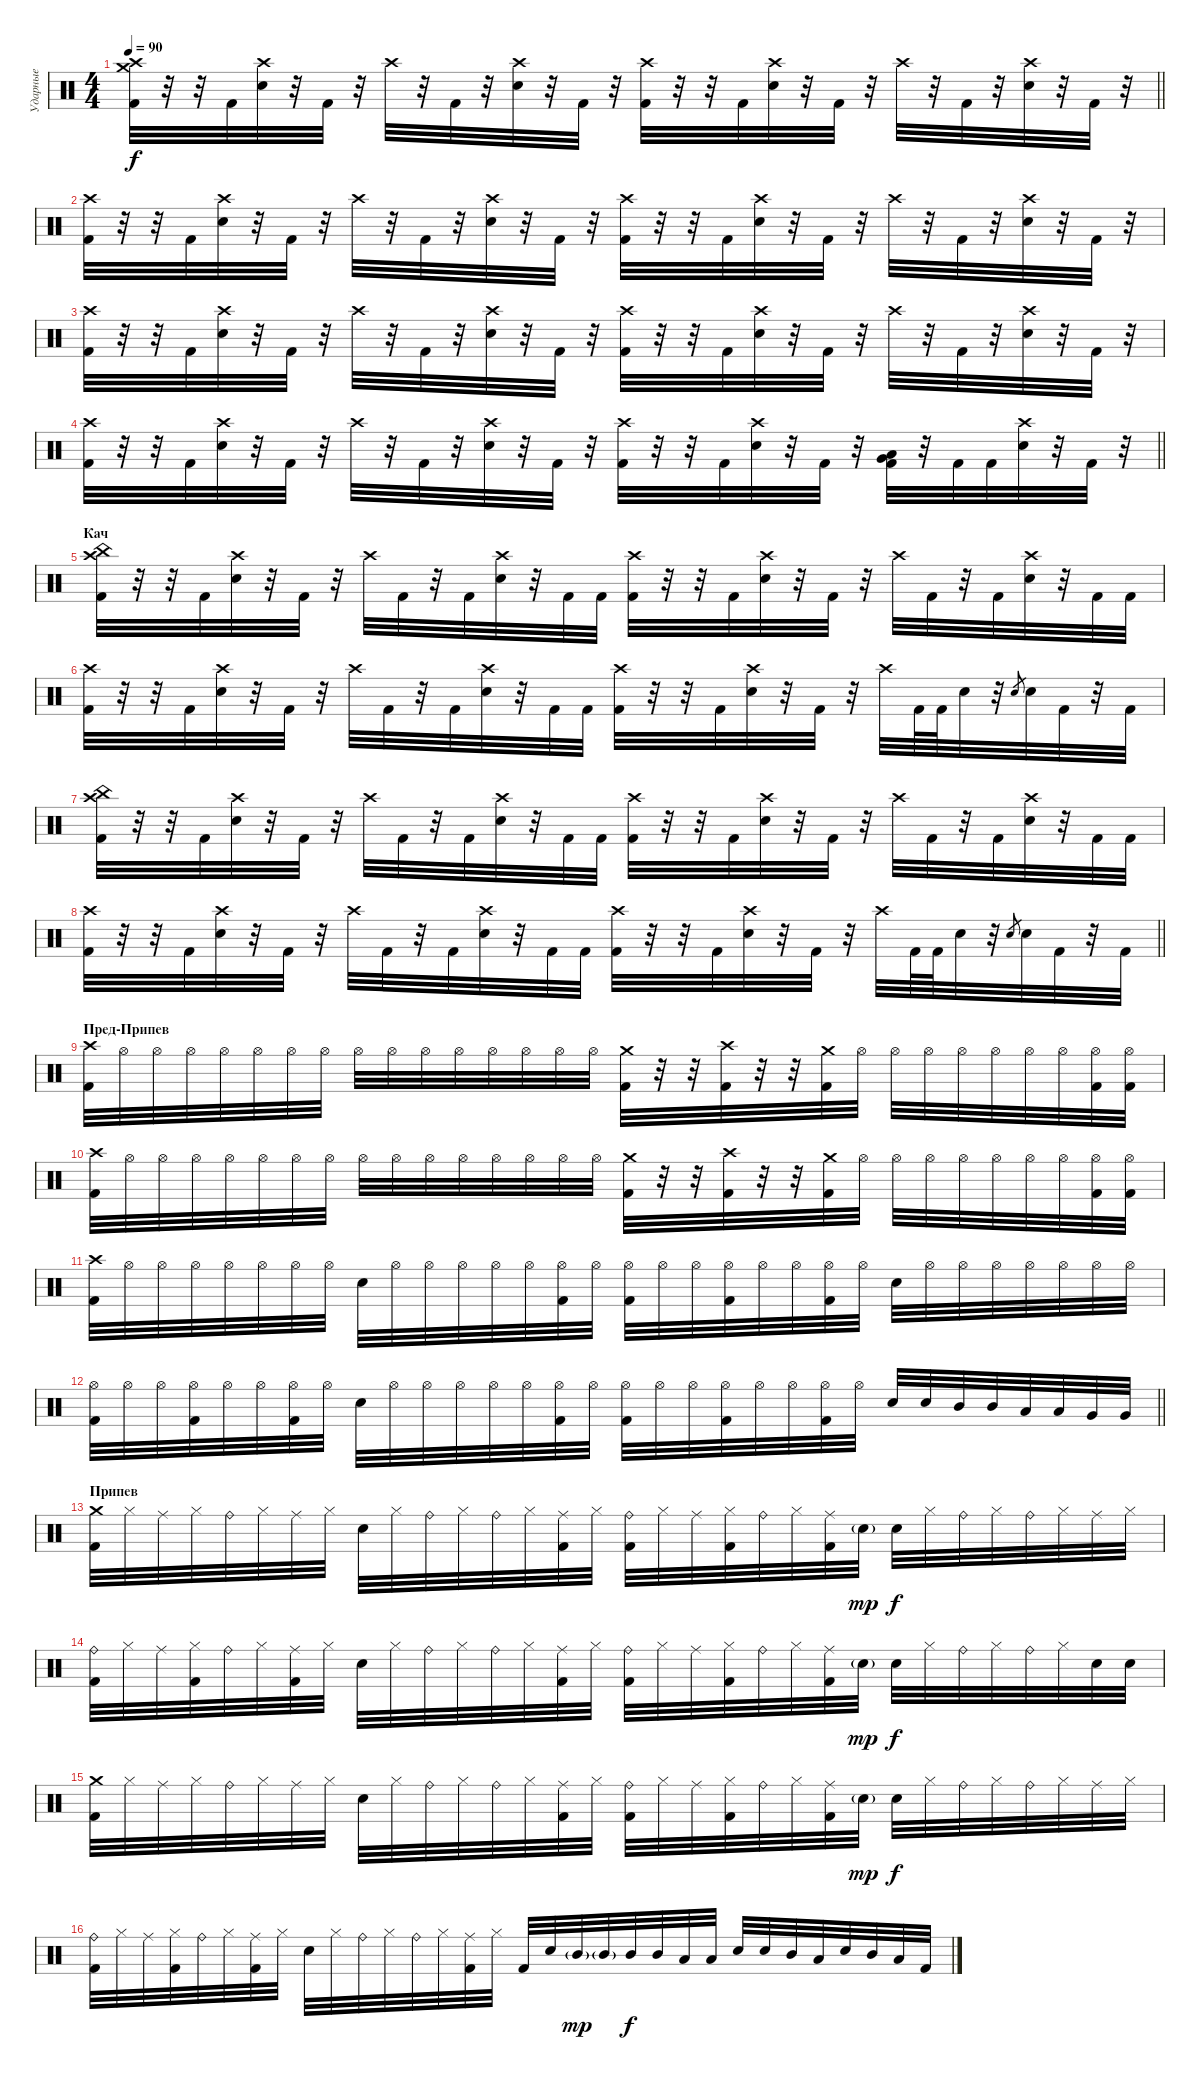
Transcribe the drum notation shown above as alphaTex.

\track ("Ударные" "Ударные") {instrument percussion}
\staff {score}
\articulation defaults
\ts (4 4)
\tempo 90
\clef neutral
\barLineRight lightlight
\ks c
("Crash medium (hit)" "Crash high (hit)" "Kick (hit) 2").32{dy f} r.32 r.32 "Kick (hit) 2".32 ("Crash high (hit)" "Electric Snare (hit)").32 r.32 "Kick (hit) 2".32 r.32 "Crash high (hit)".32 r.32 "Kick (hit) 2".32 r.32 ("Crash high (hit)" "Electric Snare (hit)").32 r.32 "Kick (hit) 2".32 r.32 ("Crash high (hit)" "Kick (hit) 2").32 r.32 r.32 "Kick (hit) 2".32 ("Crash high (hit)" "Electric Snare (hit)").32 r.32 "Kick (hit) 2".32 r.32 "Crash high (hit)".32 r.32 "Kick (hit) 2".32 r.32 ("Crash high (hit)" "Electric Snare (hit)").32 r.32 "Kick (hit) 2".32 r.32 |
("Crash high (hit)" "Kick (hit) 2").32 r.32 r.32 "Kick (hit) 2".32 ("Crash high (hit)" "Electric Snare (hit)").32 r.32 "Kick (hit) 2".32 r.32 "Crash high (hit)".32 r.32 "Kick (hit) 2".32 r.32 ("Crash high (hit)" "Electric Snare (hit)").32 r.32 "Kick (hit) 2".32 r.32 ("Crash high (hit)" "Kick (hit) 2").32 r.32 r.32 "Kick (hit) 2".32 ("Crash high (hit)" "Electric Snare (hit)").32 r.32 "Kick (hit) 2".32 r.32 "Crash high (hit)".32 r.32 "Kick (hit) 2".32 r.32 ("Crash high (hit)" "Electric Snare (hit)").32 r.32 "Kick (hit) 2".32 r.32 |
("Crash high (hit)" "Kick (hit) 2").32 r.32 r.32 "Kick (hit) 2".32 ("Crash high (hit)" "Electric Snare (hit)").32 r.32 "Kick (hit) 2".32 r.32 "Crash high (hit)".32 r.32 "Kick (hit) 2".32 r.32 ("Crash high (hit)" "Electric Snare (hit)").32 r.32 "Kick (hit) 2".32 r.32 ("Crash high (hit)" "Kick (hit) 2").32 r.32 r.32 "Kick (hit) 2".32 ("Crash high (hit)" "Electric Snare (hit)").32 r.32 "Kick (hit) 2".32 r.32 "Crash high (hit)".32 r.32 "Kick (hit) 2".32 r.32 ("Crash high (hit)" "Electric Snare (hit)").32 r.32 "Kick (hit) 2".32 r.32 |
\barLineRight lightlight
("Crash high (hit)" "Kick (hit) 2").32 r.32 r.32 "Kick (hit) 2".32 ("Crash high (hit)" "Electric Snare (hit)").32 r.32 "Kick (hit) 2".32 r.32 "Crash high (hit)".32 r.32 "Kick (hit) 2".32 r.32 ("Crash high (hit)" "Electric Snare (hit)").32 r.32 "Kick (hit) 2".32 r.32 ("Crash high (hit)" "Kick (hit) 2").32 r.32 r.32 "Kick (hit) 2".32 ("Crash high (hit)" "Electric Snare (hit)").32 r.32 "Kick (hit) 2".32 r.32 ("Low Tom (hit)" "Very Low Tom (hit)" "Kick (hit) 2").32 r.32 "Kick (hit) 2".32 "Kick (hit) 2".32 ("Crash high (hit)" "Electric Snare (hit)").32 r.32 "Kick (hit) 2".32 r.32 |
\section ("" "Кач")
("China (hit)" "Crash high (hit)" "Kick (hit) 2").32 r.32 r.32 "Kick (hit) 2".32 ("Crash high (hit)" "Electric Snare (hit)").32 r.32 "Kick (hit) 2".32 r.32 "Crash high (hit)".32 "Kick (hit) 2".32 r.32 "Kick (hit) 2".32 ("Crash high (hit)" "Electric Snare (hit)").32 r.32 "Kick (hit) 2".32 "Kick (hit) 2".32 ("Crash high (hit)" "Kick (hit) 2").32 r.32 r.32 "Kick (hit) 2".32 ("Crash high (hit)" "Electric Snare (hit)").32 r.32 "Kick (hit) 2".32 r.32 "Crash high (hit)".32 "Kick (hit) 2".32 r.32 "Kick (hit) 2".32 ("Crash high (hit)" "Electric Snare (hit)").32 r.32 "Kick (hit) 2".32 "Kick (hit) 2".32 |
("Crash high (hit)" "Kick (hit) 2").32 r.32 r.32 "Kick (hit) 2".32 ("Crash high (hit)" "Electric Snare (hit)").32 r.32 "Kick (hit) 2".32 r.32 "Crash high (hit)".32 "Kick (hit) 2".32 r.32 "Kick (hit) 2".32 ("Crash high (hit)" "Electric Snare (hit)").32 r.32 "Kick (hit) 2".32 "Kick (hit) 2".32 ("Crash high (hit)" "Kick (hit) 2").32 r.32 r.32 "Kick (hit) 2".32 ("Crash high (hit)" "Electric Snare (hit)").32 r.32 "Kick (hit) 2".32 r.32 "Crash high (hit)".32 "Kick (hit) 2".64 "Kick (hit) 2".64 "Electric Snare (hit)".32 r.32 "Electric Snare (hit)".8{gr} "Electric Snare (hit)".32 "Kick (hit) 2".32 r.32 "Kick (hit) 2".32 |
("China (hit)" "Crash high (hit)" "Kick (hit) 2").32 r.32 r.32 "Kick (hit) 2".32 ("Crash high (hit)" "Electric Snare (hit)").32 r.32 "Kick (hit) 2".32 r.32 "Crash high (hit)".32 "Kick (hit) 2".32 r.32 "Kick (hit) 2".32 ("Crash high (hit)" "Electric Snare (hit)").32 r.32 "Kick (hit) 2".32 "Kick (hit) 2".32 ("Crash high (hit)" "Kick (hit) 2").32 r.32 r.32 "Kick (hit) 2".32 ("Crash high (hit)" "Electric Snare (hit)").32 r.32 "Kick (hit) 2".32 r.32 "Crash high (hit)".32 "Kick (hit) 2".32 r.32 "Kick (hit) 2".32 ("Crash high (hit)" "Electric Snare (hit)").32 r.32 "Kick (hit) 2".32 "Kick (hit) 2".32 |
\barLineRight lightlight
("Crash high (hit)" "Kick (hit) 2").32 r.32 r.32 "Kick (hit) 2".32 ("Crash high (hit)" "Electric Snare (hit)").32 r.32 "Kick (hit) 2".32 r.32 "Crash high (hit)".32 "Kick (hit) 2".32 r.32 "Kick (hit) 2".32 ("Crash high (hit)" "Electric Snare (hit)").32 r.32 "Kick (hit) 2".32 "Kick (hit) 2".32 ("Crash high (hit)" "Kick (hit) 2").32 r.32 r.32 "Kick (hit) 2".32 ("Crash high (hit)" "Electric Snare (hit)").32 r.32 "Kick (hit) 2".32 r.32 "Crash high (hit)".32 "Kick (hit) 2".64 "Kick (hit) 2".64 "Electric Snare (hit)".32 r.32 "Electric Snare (hit)".8{gr} "Electric Snare (hit)".32 "Kick (hit) 2".32 r.32 "Kick (hit) 2".32 |
\section ("" "Пред-Припев ")
("Crash high (hit)" "Kick (hit) 2").32 "Hi-Hat (open)".32 "Hi-Hat (open)".32 "Hi-Hat (open)".32 "Hi-Hat (open)".32 "Hi-Hat (open)".32 "Hi-Hat (open)".32 "Hi-Hat (open)".32 "Hi-Hat (open)".32 "Hi-Hat (open)".32 "Hi-Hat (open)".32 "Hi-Hat (open)".32 "Hi-Hat (open)".32 "Hi-Hat (open)".32 "Hi-Hat (open)".32 "Hi-Hat (open)".32 ("Crash medium (hit)" "Kick (hit) 2").32 r.32 r.32 ("Crash high (hit)" "Kick (hit) 2").32 r.32 r.32 ("Crash medium (hit)" "Kick (hit) 2").32 "Hi-Hat (open)".32 "Hi-Hat (open)".32 "Hi-Hat (open)".32 "Hi-Hat (open)".32 "Hi-Hat (open)".32 "Hi-Hat (open)".32 "Hi-Hat (open)".32 ("Hi-Hat (open)" "Kick (hit) 2").32 ("Hi-Hat (open)" "Kick (hit) 2").32 |
("Crash high (hit)" "Kick (hit) 2").32 "Hi-Hat (open)".32 "Hi-Hat (open)".32 "Hi-Hat (open)".32 "Hi-Hat (open)".32 "Hi-Hat (open)".32 "Hi-Hat (open)".32 "Hi-Hat (open)".32 "Hi-Hat (open)".32 "Hi-Hat (open)".32 "Hi-Hat (open)".32 "Hi-Hat (open)".32 "Hi-Hat (open)".32 "Hi-Hat (open)".32 "Hi-Hat (open)".32 "Hi-Hat (open)".32 ("Crash medium (hit)" "Kick (hit) 2").32 r.32 r.32 ("Crash high (hit)" "Kick (hit) 2").32 r.32 r.32 ("Crash medium (hit)" "Kick (hit) 2").32 "Hi-Hat (open)".32 "Hi-Hat (open)".32 "Hi-Hat (open)".32 "Hi-Hat (open)".32 "Hi-Hat (open)".32 "Hi-Hat (open)".32 "Hi-Hat (open)".32 ("Hi-Hat (open)" "Kick (hit) 2").32 ("Hi-Hat (open)" "Kick (hit) 2").32 |
("Crash high (hit)" "Kick (hit) 2").32 "Hi-Hat (open)".32 "Hi-Hat (open)".32 "Hi-Hat (open)".32 "Hi-Hat (open)".32 "Hi-Hat (open)".32 "Hi-Hat (open)".32 "Hi-Hat (open)".32 "Electric Snare (hit)".32 "Hi-Hat (open)".32 "Hi-Hat (open)".32 "Hi-Hat (open)".32 "Hi-Hat (open)".32 "Hi-Hat (open)".32 ("Hi-Hat (open)" "Kick (hit) 2").32 "Hi-Hat (open)".32 ("Hi-Hat (open)" "Kick (hit) 2").32 "Hi-Hat (open)".32 "Hi-Hat (open)".32 ("Hi-Hat (open)" "Kick (hit) 2").32 "Hi-Hat (open)".32 "Hi-Hat (open)".32 ("Hi-Hat (open)" "Kick (hit) 2").32 "Hi-Hat (open)".32 "Electric Snare (hit)".32 "Hi-Hat (open)".32 "Hi-Hat (open)".32 "Hi-Hat (open)".32 "Hi-Hat (open)".32 "Hi-Hat (open)".32 "Hi-Hat (open)".32 "Hi-Hat (open)".32 |
\barLineRight lightlight
("Hi-Hat (open)" "Kick (hit) 2").32 "Hi-Hat (open)".32 "Hi-Hat (open)".32 ("Hi-Hat (open)" "Kick (hit) 2").32 "Hi-Hat (open)".32 "Hi-Hat (open)".32 ("Hi-Hat (open)" "Kick (hit) 2").32 "Hi-Hat (open)".32 "Electric Snare (hit)".32 "Hi-Hat (open)".32 "Hi-Hat (open)".32 "Hi-Hat (open)".32 "Hi-Hat (open)".32 "Hi-Hat (open)".32 ("Hi-Hat (open)" "Kick (hit) 2").32 "Hi-Hat (open)".32 ("Hi-Hat (open)" "Kick (hit) 2").32 "Hi-Hat (open)".32 "Hi-Hat (open)".32 ("Hi-Hat (open)" "Kick (hit) 2").32 "Hi-Hat (open)".32 "Hi-Hat (open)".32 ("Hi-Hat (open)" "Kick (hit) 2").32 "Hi-Hat (open)".32 "Electric Snare (hit)".32 "Electric Snare (hit)".32 "Mid Tom (hit)".32 "Mid Tom (hit)".32 "Low Tom (hit)".32 "Low Tom (hit)".32 "Very Low Tom (hit)".32 "Very Low Tom (hit)".32 |
\section ("" "Припев")
("Crash medium (hit)" "Kick (hit) 2").32 "Hi-Hat (closed)".32 "Ride (middle)".32 "Hi-Hat (closed)".32 "Ride (bell)".32 "Hi-Hat (closed)".32 "Ride (middle)".32 "Hi-Hat (closed)".32 "Electric Snare (hit)".32 "Hi-Hat (closed)".32 "Ride (bell)".32 "Hi-Hat (closed)".32 "Ride (bell)".32 "Hi-Hat (closed)".32 ("Ride (middle)" "Kick (hit) 2").32 "Hi-Hat (closed)".32 ("Ride (bell)" "Kick (hit) 2").32 "Hi-Hat (closed)".32 "Ride (middle)".32 ("Hi-Hat (closed)" "Kick (hit) 2").32 "Ride (bell)".32 "Hi-Hat (closed)".32 ("Ride (middle)" "Kick (hit) 2").32 "Electric Snare (hit)"{g}.32{dy mp} "Electric Snare (hit)".32{dy f} "Hi-Hat (closed)".32 "Ride (bell)".32 "Hi-Hat (closed)".32 "Ride (bell)".32 "Hi-Hat (closed)".32 "Ride (middle)".32 "Hi-Hat (closed)".32 |
("Ride (bell)" "Kick (hit) 2").32 "Hi-Hat (closed)".32 "Ride (middle)".32 ("Hi-Hat (closed)" "Kick (hit) 2").32 "Ride (bell)".32 "Hi-Hat (closed)".32 ("Ride (middle)" "Kick (hit) 2").32 "Hi-Hat (closed)".32 "Electric Snare (hit)".32 "Hi-Hat (closed)".32 "Ride (bell)".32 "Hi-Hat (closed)".32 "Ride (bell)".32 "Hi-Hat (closed)".32 ("Ride (middle)" "Kick (hit) 2").32 "Hi-Hat (closed)".32 ("Ride (bell)" "Kick (hit) 2").32 "Hi-Hat (closed)".32 "Ride (middle)".32 ("Hi-Hat (closed)" "Kick (hit) 2").32 "Ride (bell)".32 "Hi-Hat (closed)".32 ("Ride (middle)" "Kick (hit) 2").32 "Electric Snare (hit)"{g}.32{dy mp} "Electric Snare (hit)".32{dy f} "Hi-Hat (closed)".32 "Ride (bell)".32 "Hi-Hat (closed)".32 "Ride (bell)".32 "Hi-Hat (closed)".32 "Electric Snare (hit)".32 "Electric Snare (hit)".32 |
("Crash medium (hit)" "Kick (hit) 2").32 "Hi-Hat (closed)".32 "Ride (middle)".32 "Hi-Hat (closed)".32 "Ride (bell)".32 "Hi-Hat (closed)".32 "Ride (middle)".32 "Hi-Hat (closed)".32 "Electric Snare (hit)".32 "Hi-Hat (closed)".32 "Ride (bell)".32 "Hi-Hat (closed)".32 "Ride (bell)".32 "Hi-Hat (closed)".32 ("Ride (middle)" "Kick (hit) 2").32 "Hi-Hat (closed)".32 ("Ride (bell)" "Kick (hit) 2").32 "Hi-Hat (closed)".32 "Ride (middle)".32 ("Hi-Hat (closed)" "Kick (hit) 2").32 "Ride (bell)".32 "Hi-Hat (closed)".32 ("Ride (middle)" "Kick (hit) 2").32 "Electric Snare (hit)"{g}.32{dy mp} "Electric Snare (hit)".32{dy f} "Hi-Hat (closed)".32 "Ride (bell)".32 "Hi-Hat (closed)".32 "Ride (bell)".32 "Hi-Hat (closed)".32 "Ride (middle)".32 "Hi-Hat (closed)".32 |
("Ride (bell)" "Kick (hit) 2").32 "Hi-Hat (closed)".32 "Ride (middle)".32 ("Hi-Hat (closed)" "Kick (hit) 2").32 "Ride (bell)".32 "Hi-Hat (closed)".32 ("Ride (middle)" "Kick (hit) 2").32 "Hi-Hat (closed)".32 "Electric Snare (hit)".32 "Hi-Hat (closed)".32 "Ride (bell)".32 "Hi-Hat (closed)".32 "Ride (bell)".32 "Hi-Hat (closed)".32 ("Ride (middle)" "Kick (hit) 2").32 "Hi-Hat (closed)".32 "Kick (hit) 2".32 "Electric Snare (hit)".32 "Mid Tom (hit)"{g}.32{dy mp} "Mid Tom (hit)"{g}.32 "Mid Tom (hit)".32{dy f} "Mid Tom (hit)".32 "Low Tom (hit)".32 "Low Tom (hit)".32 "Electric Snare (hit)".32 "Electric Snare (hit)".32 "Mid Tom (hit)".32 "Low Tom (hit)".32 "Electric Snare (hit)".32 "Mid Tom (hit)".32 "Low Tom (hit)".32 "Kick (hit) 2".32
